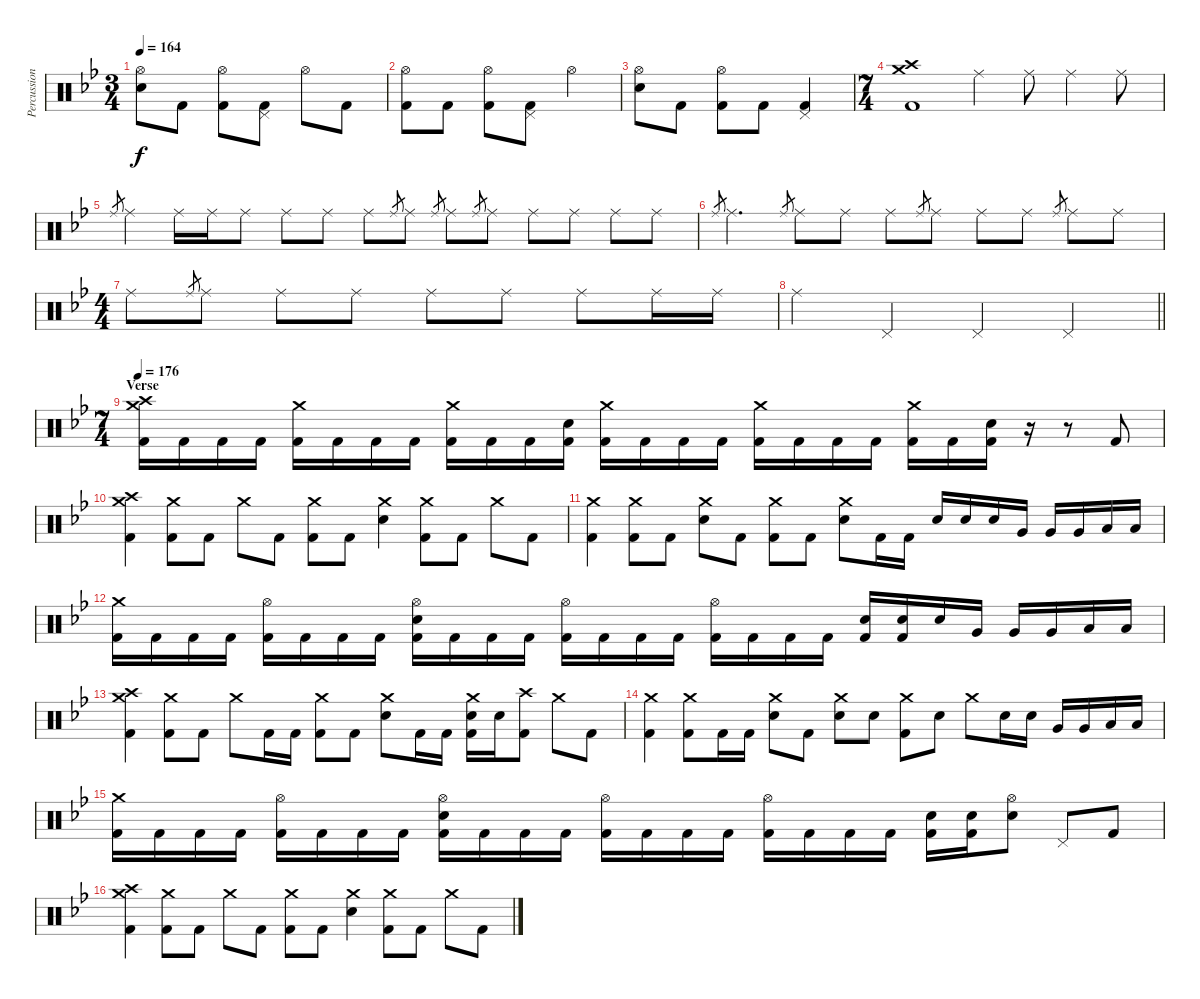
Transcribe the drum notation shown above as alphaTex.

\track ("Percussion" "Percussion") {instrument percussion}
\staff {score}
\articulation defaults
\ts (3 4)
\tempo 164
\clef neutral
\ks bb
("Hi-Hat (open)" "Electric Snare (hit)").8{dy f} "Kick (hit) 2".8 ("Hi-Hat (open)" "Kick (hit) 2").8 ("Pedal Hi-Hat (hit)" "Kick (hit) 2").8 "Hi-Hat (open)".8 "Kick (hit) 2".8 |
("Hi-Hat (open)" "Kick (hit) 2").8 "Kick (hit) 2".8 ("Hi-Hat (open)" "Kick (hit) 2").8 ("Pedal Hi-Hat (hit)" "Kick (hit) 2").8 "Hi-Hat (open)".4 |
("Hi-Hat (open)" "Electric Snare (hit)").8 "Kick (hit) 2".8 ("Hi-Hat (open)" "Kick (hit) 2").8 "Kick (hit) 2".8 ("Pedal Hi-Hat (hit)" "Kick (hit) 2").4 |
\ts (7 4)
("Crash medium (hit)" "Crash high (hit)" "Kick (hit) 2").1 "Ride (middle)".4 "Ride (middle)".8 "Ride (middle)".4 "Ride (middle)".8 |
"Ride (middle)".8{gr} "Ride (middle)".4 "Ride (middle)".16 "Ride (middle)".16 "Ride (middle)".8 "Ride (middle)".8 "Ride (middle)".8 "Ride (middle)".8 "Ride (middle)".8{gr} "Ride (middle)".8 "Ride (middle)".8{gr} "Ride (middle)".8 "Ride (middle)".8{gr} "Ride (middle)".8 "Ride (middle)".8 "Ride (middle)".8 "Ride (middle)".8 "Ride (middle)".8 |
"Ride (middle)".8{gr} "Ride (middle)".2{d} "Ride (middle)".8{gr} "Ride (middle)".8 "Ride (middle)".8 "Ride (middle)".8 "Ride (middle)".8{gr} "Ride (middle)".8 "Ride (middle)".8 "Ride (middle)".8 "Ride (middle)".8{gr} "Ride (middle)".8 "Ride (middle)".8 |
\ts (4 4)
"Ride (middle)".8 "Ride (middle)".8{gr} "Ride (middle)".8 "Ride (middle)".8 "Ride (middle)".8 "Ride (middle)".8 "Ride (middle)".8 "Ride (middle)".8 "Ride (middle)".16 "Ride (middle)".16 |
\barLineRight lightlight "Ride (middle)".4 "Pedal Hi-Hat (hit)".4 "Pedal Hi-Hat (hit)".4 "Pedal Hi-Hat (hit)".4
|
\ts (7 4)
\section ("" "Verse")
\tempo 176
("Crash medium (hit)" "Crash high (hit)" "Kick (hit) 2").16{volume 14} "Kick (hit) 2".16 "Kick (hit) 2".16 "Kick (hit) 2".16 ("Crash medium (hit)" "Kick (hit) 2").16 "Kick (hit) 2".16 "Kick (hit) 2".16 "Kick (hit) 2".16 ("Crash medium (hit)" "Kick (hit) 2").16 "Kick (hit) 2".16 "Kick (hit) 2".16 ("Electric Snare (hit)" "Kick (hit) 2").16 ("Crash medium (hit)" "Kick (hit) 2").16 "Kick (hit) 2".16 "Kick (hit) 2".16 "Kick (hit) 2".16 ("Crash medium (hit)" "Kick (hit) 2").16 "Kick (hit) 2".16 "Kick (hit) 2".16 "Kick (hit) 2".16 ("Crash medium (hit)" "Kick (hit) 2").16 "Kick (hit) 2".16 ("Electric Snare (hit)" "Kick (hit) 2").16 r.16{volume 0} r.8 "Kick (hit) 2".8{volume 14} |
("Crash medium (hit)" "Crash high (hit)" "Kick (hit) 2").4 ("Crash medium (hit)" "Kick (hit) 2").8 "Kick (hit) 2".8 "Crash medium (hit)".8 "Kick (hit) 2".8 ("Crash medium (hit)" "Kick (hit) 2").8 "Kick (hit) 2".8 ("Crash medium (hit)" "Electric Snare (hit)").4 ("Crash medium (hit)" "Kick (hit) 2").8 "Kick (hit) 2".8 "Crash medium (hit)".8 "Kick (hit) 2".8 |
("Crash medium (hit)" "Kick (hit) 2").4 ("Crash medium (hit)" "Kick (hit) 2").8 "Kick (hit) 2".8 ("Crash medium (hit)" "Electric Snare (hit)").8 "Kick (hit) 2".8 ("Crash medium (hit)" "Kick (hit) 2").8 "Kick (hit) 2".8 ("Crash medium (hit)" "Electric Snare (hit)").8 "Kick (hit) 2".16 "Kick (hit) 2".16 "Electric Snare (hit)".16 "Electric Snare (hit)".16 "Electric Snare (hit)".16 "Very Low Tom (hit)".16 "Very Low Tom (hit)".16 "Very Low Tom (hit)".16 "Low Floor Tom (hit)".16 "Low Floor Tom (hit)".16 |
("Crash medium (hit)" "Kick (hit) 2").16 "Kick (hit) 2".16 "Kick (hit) 2".16 "Kick (hit) 2".16 ("Hi-Hat (open)" "Kick (hit) 2").16 "Kick (hit) 2".16 "Kick (hit) 2".16 "Kick (hit) 2".16 ("Hi-Hat (open)" "Electric Snare (hit)" "Kick (hit) 2").16 "Kick (hit) 2".16 "Kick (hit) 2".16 "Kick (hit) 2".16 ("Hi-Hat (open)" "Kick (hit) 2").16 "Kick (hit) 2".16 "Kick (hit) 2".16 "Kick (hit) 2".16 ("Hi-Hat (open)" "Kick (hit) 2").16 "Kick (hit) 2".16 "Kick (hit) 2".16 "Kick (hit) 2".16 ("Electric Snare (hit)" "Kick (hit) 2").16 ("Electric Snare (hit)" "Kick (hit) 2").16 "Electric Snare (hit)".16 "Very Low Tom (hit)".16 "Very Low Tom (hit)".16 "Very Low Tom (hit)".16 "Low Floor Tom (hit)".16 "Low Floor Tom (hit)".16 |
("Crash medium (hit)" "Crash high (hit)" "Kick (hit) 2").4 ("Crash medium (hit)" "Kick (hit) 2").8 "Kick (hit) 2".8 "Crash medium (hit)".8 "Kick (hit) 2".16 "Kick (hit) 2".16 ("Crash medium (hit)" "Kick (hit) 2").8 "Kick (hit) 2".8 ("Crash medium (hit)" "Electric Snare (hit)").8 "Kick (hit) 2".16 "Kick (hit) 2".16 ("Crash medium (hit)" "Electric Snare (hit)" "Kick (hit) 2").16 "Electric Snare (hit)".16 ("Crash high (hit)" "Kick (hit) 2").8 "Crash medium (hit)".8 "Kick (hit) 2".8 |
("Crash medium (hit)" "Kick (hit) 2").4 ("Crash medium (hit)" "Kick (hit) 2").8 "Kick (hit) 2".16 "Kick (hit) 2".16 ("Crash medium (hit)" "Electric Snare (hit)").8 "Kick (hit) 2".8 ("Crash medium (hit)" "Electric Snare (hit)").8 "Electric Snare (hit)".8 ("Crash medium (hit)" "Kick (hit) 2").8 "Electric Snare (hit)".8 "Crash medium (hit)".8 "Electric Snare (hit)".16 "Electric Snare (hit)".16 "Very Low Tom (hit)".16 "Very Low Tom (hit)".16 "Low Floor Tom (hit)".16 "Low Floor Tom (hit)".16 |
("Crash medium (hit)" "Kick (hit) 2").16 "Kick (hit) 2".16 "Kick (hit) 2".16 "Kick (hit) 2".16 ("Hi-Hat (open)" "Kick (hit) 2").16 "Kick (hit) 2".16 "Kick (hit) 2".16 "Kick (hit) 2".16 ("Hi-Hat (open)" "Electric Snare (hit)" "Kick (hit) 2").16 "Kick (hit) 2".16 "Kick (hit) 2".16 "Kick (hit) 2".16 ("Hi-Hat (open)" "Kick (hit) 2").16 "Kick (hit) 2".16 "Kick (hit) 2".16 "Kick (hit) 2".16 ("Hi-Hat (open)" "Kick (hit) 2").16 "Kick (hit) 2".16 "Kick (hit) 2".16 "Kick (hit) 2".16 ("Electric Snare (hit)" "Kick (hit) 2").16 ("Electric Snare (hit)" "Kick (hit) 2").16 ("Hi-Hat (open)" "Electric Snare (hit)").8 "Pedal Hi-Hat (hit)".8 "Kick (hit) 2".8 |
("Crash medium (hit)" "Crash high (hit)" "Kick (hit) 2").4 ("Crash medium (hit)" "Kick (hit) 2").8 "Kick (hit) 2".8 "Crash medium (hit)".8 "Kick (hit) 2".8 ("Crash medium (hit)" "Kick (hit) 2").8 "Kick (hit) 2".8 ("Crash medium (hit)" "Electric Snare (hit)").4 ("Crash medium (hit)" "Kick (hit) 2").8 "Kick (hit) 2".8 "Crash medium (hit)".8 "Kick (hit) 2".8
